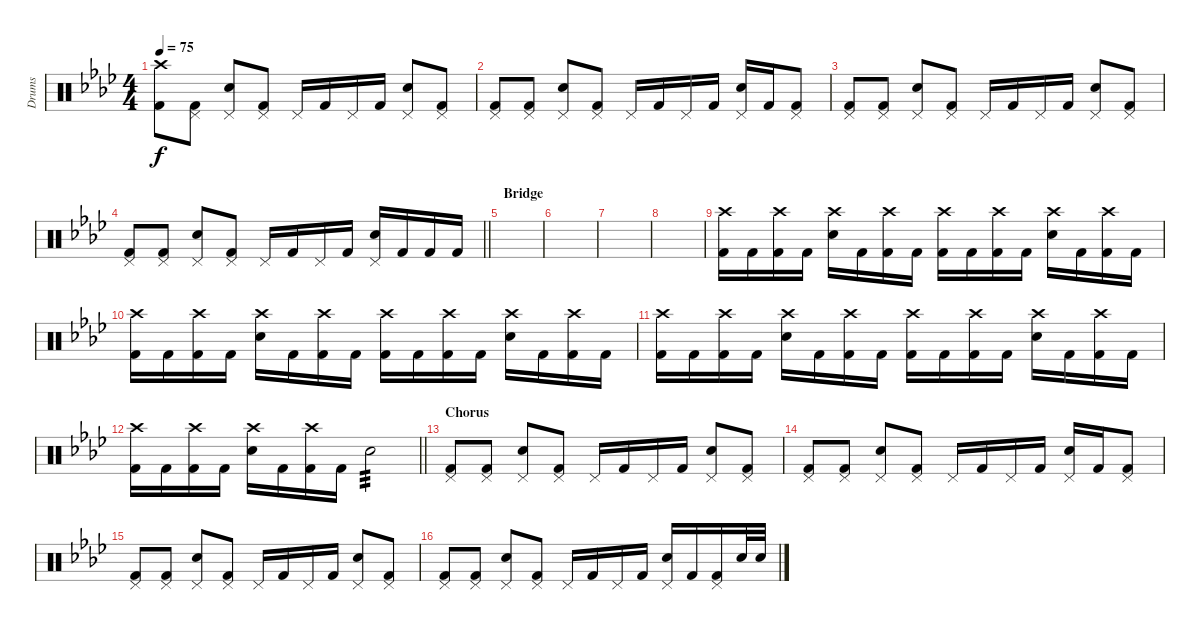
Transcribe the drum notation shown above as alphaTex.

\track ("Drums" "Drums") {instrument percussion}
\staff {score}
\articulation defaults
\ts (4 4)
\tempo 75
\clef neutral
\ks ab
("Crash high (hit)" "Kick (hit) 2").8{dy f} ("Pedal Hi-Hat (hit)" "Kick (hit) 2").8 ("Pedal Hi-Hat (hit)" "Snare (hit) 2").8 ("Pedal Hi-Hat (hit)" "Kick (hit) 2").8 "Pedal Hi-Hat (hit)".16 "Kick (hit) 2".16 "Pedal Hi-Hat (hit)".16 "Kick (hit) 2".16 ("Pedal Hi-Hat (hit)" "Snare (hit) 2").8 ("Pedal Hi-Hat (hit)" "Kick (hit) 2").8 |
("Pedal Hi-Hat (hit)" "Kick (hit) 2").8 ("Pedal Hi-Hat (hit)" "Kick (hit) 2").8 ("Pedal Hi-Hat (hit)" "Snare (hit) 2").8 ("Pedal Hi-Hat (hit)" "Kick (hit) 2").8 "Pedal Hi-Hat (hit)".16 "Kick (hit) 2".16 "Pedal Hi-Hat (hit)".16 "Kick (hit) 2".16 ("Pedal Hi-Hat (hit)" "Snare (hit) 2").16 "Kick (hit) 2".16 ("Pedal Hi-Hat (hit)" "Kick (hit) 2").8 |
("Pedal Hi-Hat (hit)" "Kick (hit) 2").8 ("Pedal Hi-Hat (hit)" "Kick (hit) 2").8 ("Pedal Hi-Hat (hit)" "Snare (hit) 2").8 ("Pedal Hi-Hat (hit)" "Kick (hit) 2").8 "Pedal Hi-Hat (hit)".16 "Kick (hit) 2".16 "Pedal Hi-Hat (hit)".16 "Kick (hit) 2".16 ("Pedal Hi-Hat (hit)" "Snare (hit) 2").8 ("Pedal Hi-Hat (hit)" "Kick (hit) 2").8 |
\barLineRight lightlight
("Pedal Hi-Hat (hit)" "Kick (hit) 2").8 ("Pedal Hi-Hat (hit)" "Kick (hit) 2").8 ("Pedal Hi-Hat (hit)" "Snare (hit) 2").8 ("Pedal Hi-Hat (hit)" "Kick (hit) 2").8 "Pedal Hi-Hat (hit)".16 "Kick (hit) 2".16 "Pedal Hi-Hat (hit)".16 "Kick (hit) 2".16 ("Pedal Hi-Hat (hit)" "Snare (hit) 2").16 "Kick (hit) 2".16 "Kick (hit) 2".16 "Kick (hit) 2".16 |
\section ("" "Bridge")
|
|
|
|
("Crash high (hit)" "Kick (hit) 2").16 "Kick (hit) 2".16 ("Crash high (hit)" "Kick (hit) 2").16 "Kick (hit) 2".16 ("Crash high (hit)" "Snare (hit) 2").16 "Kick (hit) 2".16 ("Crash high (hit)" "Kick (hit) 2").16 "Kick (hit) 2".16 ("Crash high (hit)" "Kick (hit) 2").16 "Kick (hit) 2".16 ("Crash high (hit)" "Kick (hit) 2").16 "Kick (hit) 2".16 ("Crash high (hit)" "Snare (hit) 2").16 "Kick (hit) 2".16 ("Crash high (hit)" "Kick (hit) 2").16 "Kick (hit) 2".16 |
("Crash high (hit)" "Kick (hit) 2").16 "Kick (hit) 2".16 ("Crash high (hit)" "Kick (hit) 2").16 "Kick (hit) 2".16 ("Crash high (hit)" "Snare (hit) 2").16 "Kick (hit) 2".16 ("Crash high (hit)" "Kick (hit) 2").16 "Kick (hit) 2".16 ("Crash high (hit)" "Kick (hit) 2").16 "Kick (hit) 2".16 ("Crash high (hit)" "Kick (hit) 2").16 "Kick (hit) 2".16 ("Crash high (hit)" "Snare (hit) 2").16 "Kick (hit) 2".16 ("Crash high (hit)" "Kick (hit) 2").16 "Kick (hit) 2".16 |
("Crash high (hit)" "Kick (hit) 2").16 "Kick (hit) 2".16 ("Crash high (hit)" "Kick (hit) 2").16 "Kick (hit) 2".16 ("Crash high (hit)" "Snare (hit) 2").16 "Kick (hit) 2".16 ("Crash high (hit)" "Kick (hit) 2").16 "Kick (hit) 2".16 ("Crash high (hit)" "Kick (hit) 2").16 "Kick (hit) 2".16 ("Crash high (hit)" "Kick (hit) 2").16 "Kick (hit) 2".16 ("Crash high (hit)" "Snare (hit) 2").16 "Kick (hit) 2".16 ("Crash high (hit)" "Kick (hit) 2").16 "Kick (hit) 2".16 |
\barLineRight lightlight
("Crash high (hit)" "Kick (hit) 2").16 "Kick (hit) 2".16 ("Crash high (hit)" "Kick (hit) 2").16 "Kick (hit) 2".16 ("Crash high (hit)" "Snare (hit) 2").16 "Kick (hit) 2".16 ("Crash high (hit)" "Kick (hit) 2").16 "Kick (hit) 2".16 "Snare (hit) 2".2{tp 3} |
\section ("" "Chorus")
("Pedal Hi-Hat (hit)" "Kick (hit) 2").8 ("Pedal Hi-Hat (hit)" "Kick (hit) 2").8 ("Pedal Hi-Hat (hit)" "Snare (hit) 2").8 ("Pedal Hi-Hat (hit)" "Kick (hit) 2").8 "Pedal Hi-Hat (hit)".16 "Kick (hit) 2".16 "Pedal Hi-Hat (hit)".16 "Kick (hit) 2".16 ("Pedal Hi-Hat (hit)" "Snare (hit) 2").8 ("Pedal Hi-Hat (hit)" "Kick (hit) 2").8 |
("Pedal Hi-Hat (hit)" "Kick (hit) 2").8 ("Pedal Hi-Hat (hit)" "Kick (hit) 2").8 ("Pedal Hi-Hat (hit)" "Snare (hit) 2").8 ("Pedal Hi-Hat (hit)" "Kick (hit) 2").8 "Pedal Hi-Hat (hit)".16 "Kick (hit) 2".16 "Pedal Hi-Hat (hit)".16 "Kick (hit) 2".16 ("Pedal Hi-Hat (hit)" "Snare (hit) 2").16 "Kick (hit) 2".16 ("Pedal Hi-Hat (hit)" "Kick (hit) 2").8 |
("Pedal Hi-Hat (hit)" "Kick (hit) 2").8 ("Pedal Hi-Hat (hit)" "Kick (hit) 2").8 ("Pedal Hi-Hat (hit)" "Snare (hit) 2").8 ("Pedal Hi-Hat (hit)" "Kick (hit) 2").8 "Pedal Hi-Hat (hit)".16 "Kick (hit) 2".16 "Pedal Hi-Hat (hit)".16 "Kick (hit) 2".16 ("Pedal Hi-Hat (hit)" "Snare (hit) 2").8 ("Pedal Hi-Hat (hit)" "Kick (hit) 2").8 |
("Pedal Hi-Hat (hit)" "Kick (hit) 2").8 ("Pedal Hi-Hat (hit)" "Kick (hit) 2").8 ("Pedal Hi-Hat (hit)" "Snare (hit) 2").8 ("Pedal Hi-Hat (hit)" "Kick (hit) 2").8 "Pedal Hi-Hat (hit)".16 "Kick (hit) 2".16 "Pedal Hi-Hat (hit)".16 "Kick (hit) 2".16 ("Pedal Hi-Hat (hit)" "Snare (hit) 2").16 "Kick (hit) 2".16 ("Pedal Hi-Hat (hit)" "Kick (hit) 2").16 "Snare (hit) 2".32 "Snare (hit) 2".32
